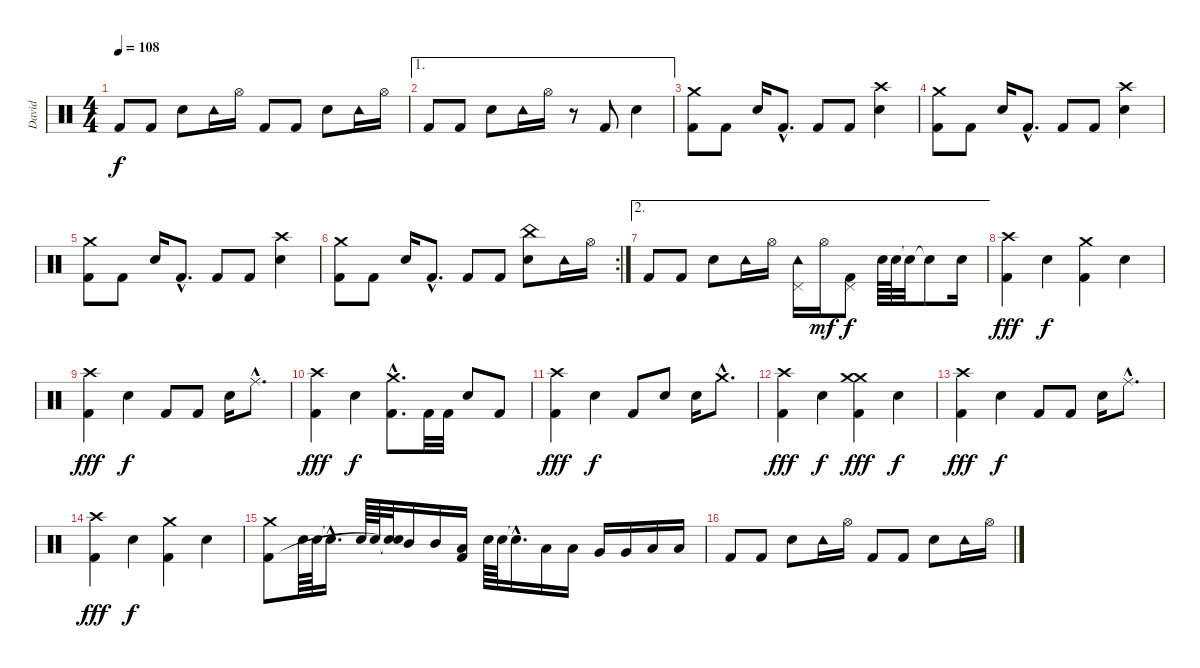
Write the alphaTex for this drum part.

\track ("David" "David") {instrument percussion}
\staff {score}
\articulation defaults
\ts (4 4)
\tempo 108
\clef neutral
\ks c "Kick (hit) 2".8{dy f} "Kick (hit) 2".8 "Snare (hit) 2".8 "Tambourine (hit)".16 "Hi-Hat (open)".16 "Kick (hit) 2".8 "Kick (hit) 2".8 "Snare (hit) 2".8 "Tambourine (hit)".16 "Hi-Hat (open)".16
|
\ae 1 "Kick (hit) 2".8 "Kick (hit) 2".8 "Snare (hit) 2".8 "Tambourine (hit)".16 "Hi-Hat (open)".16
r.8 "Kick (hit) 2".8 "Snare (hit) 2".4 |
("Crash medium (hit)" "Kick (hit) 2").8 "Kick (hit) 2".8 "Snare (hit) 2".16 "Kick (hit) 2"{hac}.8{d} "Kick (hit) 2".8 "Kick (hit) 2".8 ("Crash high (hit)" "Snare (hit) 2").4 |
("Crash medium (hit)" "Kick (hit) 2").8 "Kick (hit) 2".8 "Snare (hit) 2".16 "Kick (hit) 2"{hac}.8{d} "Kick (hit) 2".8 "Kick (hit) 2".8 ("Crash high (hit)" "Snare (hit) 2").4 |
("Crash medium (hit)" "Kick (hit) 2").8 "Kick (hit) 2".8 "Snare (hit) 2".16 "Kick (hit) 2"{hac}.8{d} "Kick (hit) 2".8 "Kick (hit) 2".8 ("Crash high (hit)" "Snare (hit) 2").4 |
\rc 2
("Crash medium (hit)" "Kick (hit) 2").8 "Kick (hit) 2".8 "Snare (hit) 2".16 "Kick (hit) 2"{hac}.8{d} "Kick (hit) 2".8 "Kick (hit) 2".8 ("China (hit)" "Snare (hit) 2").8 "Tambourine (hit)".16 "Hi-Hat (open)".16 |
\ae 2 "Kick (hit) 2".8 "Kick (hit) 2".8 "Snare (hit) 2".8 "Tambourine (hit)".16 "Hi-Hat (open)".16
("Tambourine (hit)" "Pedal Hi-Hat (hit)").16 "Hi-Hat (open)".16{dy mf} ("Pedal Hi-Hat (hit)" "Kick (hit) 2").8{dy f} "Snare (hit) 2".64 "Snare (hit) 2".64 "Snare (hit)"{t}.32 "Snare (hit)"{t}.8 "Snare (hit) 2".16 |
("Crash high (hit)" "Kick (hit) 2").4{dy fff} "Snare (hit) 2".4{dy f} ("Crash medium (hit)" "Kick (hit) 2").4 "Snare (hit) 2".4 |
("Crash high (hit)" "Kick (hit) 2").4{dy fff} "Snare (hit) 2".4{dy f} "Kick (hit) 2".8 "Kick (hit) 2".8 "Snare (hit) 2".16 "Ride (middle)"{hac}.8{d} |
("Crash high (hit)" "Kick (hit) 2").4{dy fff} "Snare (hit) 2".4{dy f} ("Crash medium (hit)"{hac} "Kick (hit) 2"{hac}).8{d} "Kick (hit) 2".32 "Kick (hit) 2".32 "Snare (hit) 2".8 "Kick (hit) 2".8 |
("Crash high (hit)" "Kick (hit) 2").4{dy fff} "Snare (hit) 2".4{dy f} "Kick (hit) 2".8 "Snare (hit) 2".8 "Snare (hit) 2".16 "Crash medium (hit)"{hac}.8{d} |
("Crash high (hit)" "Kick (hit) 2").4{dy fff} "Snare (hit) 2".4{dy f} ("Crash medium (hit)" "Crash medium (hit)" "Kick (hit) 2").4{dy fff} "Snare (hit) 2".4{dy f} |
("Crash high (hit)" "Kick (hit) 2").4{dy fff} "Snare (hit) 2".4{dy f} "Kick (hit) 2".8 "Kick (hit) 2".8 "Snare (hit) 2".16 "Ride (middle)"{hac}.8{d} |
("Crash high (hit)" "Kick (hit) 2").4{dy fff} "Snare (hit) 2".4{dy f} ("Crash medium (hit)" "Kick (hit) 2").4 "Snare (hit) 2".4 |
("Crash medium (hit)" "Kick (hit) 2").8 "Snare (hit) 2".64 "Snare (hit) 2".64 "Snare (hit)"{hac t}.16{d} "Snare (hit) 2".64 "Snare (hit) 2".64 ("Snare (hit)"{t} "Snare (hit)"{t}).32 "Mid Tom (hit)".16 "Mid Tom (hit)".16 ("Low Tom (hit)" "Kick (hit) 2").16 "Snare (hit) 2".64 "Snare (hit) 2".64 "Snare (hit)"{hac t}.16{d} "Low Tom (hit)".16 "Low Tom (hit)".16 "Very Low Tom (hit)".16 "Very Low Tom (hit)".16 "Low Floor Tom (hit)".16 "Low Floor Tom (hit)".16 |
"Kick (hit) 2".8 "Kick (hit) 2".8 "Snare (hit) 2".8 "Tambourine (hit)".16 "Hi-Hat (open)".16 "Kick (hit) 2".8 "Kick (hit) 2".8 "Snare (hit) 2".8 "Tambourine (hit)".16 "Hi-Hat (open)".16
